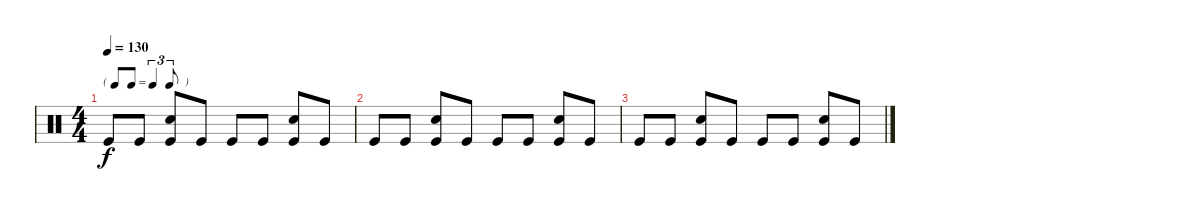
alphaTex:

\track "" {instrument percussion}
\staff {score}
\articulation defaults
\ts (4 4)
\tf triplet8th
\tempo 130
\clef neutral
\ks c "Kick (hit)".8{dy f} "Kick (hit)".8
("Snare (hit) 2" "Kick (hit)").8 "Kick (hit)".8 "Kick (hit)".8 "Kick (hit)".8 ("Snare (hit) 2" "Kick (hit)").8 "Kick (hit)".8 |
"Kick (hit)".8 "Kick (hit)".8 ("Snare (hit) 2" "Kick (hit)").8 "Kick (hit)".8 "Kick (hit)".8 "Kick (hit)".8 ("Snare (hit) 2" "Kick (hit)").8 "Kick (hit)".8 |
"Kick (hit)".8 "Kick (hit)".8 ("Snare (hit) 2" "Kick (hit)").8 "Kick (hit)".8 "Kick (hit)".8 "Kick (hit)".8 ("Snare (hit) 2" "Kick (hit)").8 "Kick (hit)".8
